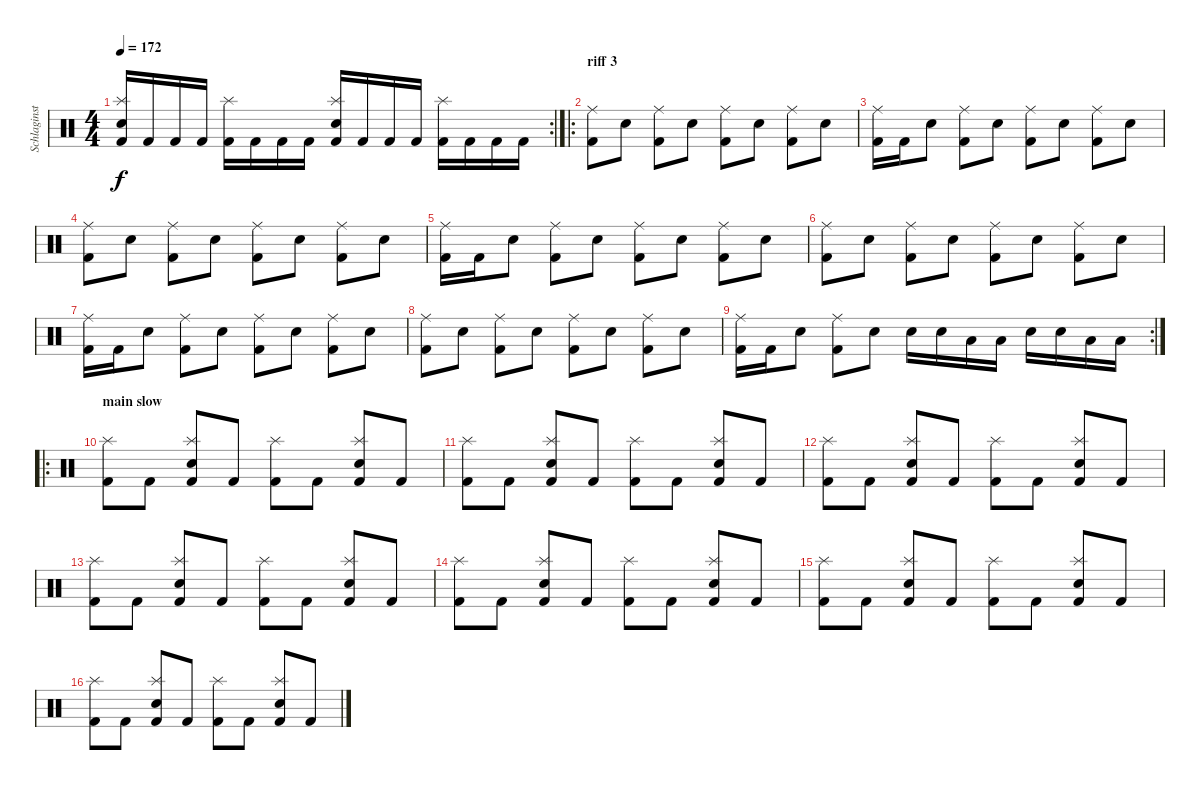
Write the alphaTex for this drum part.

\track ("Schlaginstrumente - Auswahl" "Schlaginst") {instrument percussion}
\staff {score}
\articulation defaults
\rc 2
\ts (4 4)
\tempo 172
\clef neutral
\ks c
("Electric Snare (hit)" "Splash (hit)" "Kick (hit) 2").16{dy f} "Kick (hit) 2".16 "Kick (hit) 2".16 "Kick (hit) 2".16 ("Splash (hit)" "Kick (hit) 2").16 "Kick (hit) 2".16 "Kick (hit) 2".16 "Kick (hit) 2".16 ("Electric Snare (hit)" "Splash (hit)" "Kick (hit) 2").16 "Kick (hit) 2".16 "Kick (hit) 2".16 "Kick (hit) 2".16 ("Splash (hit)" "Kick (hit) 2").16 "Kick (hit) 2".16 "Kick (hit) 2".16 "Kick (hit) 2".16 |
\ro
\section ("" "riff 3")
("Ride (middle)" "Kick (hit) 2").8 "Electric Snare (hit)".8 ("Ride (middle)" "Kick (hit) 2").8 "Electric Snare (hit)".8 ("Ride (middle)" "Kick (hit) 2").8 "Electric Snare (hit)".8 ("Ride (middle)" "Kick (hit) 2").8 "Electric Snare (hit)".8 |
("Ride (middle)" "Kick (hit) 2").16 "Kick (hit) 2".16 "Electric Snare (hit)".8 ("Ride (middle)" "Kick (hit) 2").8 "Electric Snare (hit)".8 ("Ride (middle)" "Kick (hit) 2").8 "Electric Snare (hit)".8 ("Ride (middle)" "Kick (hit) 2").8 "Electric Snare (hit)".8 |
("Ride (middle)" "Kick (hit) 2").8 "Electric Snare (hit)".8 ("Ride (middle)" "Kick (hit) 2").8 "Electric Snare (hit)".8 ("Ride (middle)" "Kick (hit) 2").8 "Electric Snare (hit)".8 ("Ride (middle)" "Kick (hit) 2").8 "Electric Snare (hit)".8 |
("Ride (middle)" "Kick (hit) 2").16 "Kick (hit) 2".16 "Electric Snare (hit)".8 ("Ride (middle)" "Kick (hit) 2").8 "Electric Snare (hit)".8 ("Ride (middle)" "Kick (hit) 2").8 "Electric Snare (hit)".8 ("Ride (middle)" "Kick (hit) 2").8 "Electric Snare (hit)".8 |
("Ride (middle)" "Kick (hit) 2").8 "Electric Snare (hit)".8 ("Ride (middle)" "Kick (hit) 2").8 "Electric Snare (hit)".8 ("Ride (middle)" "Kick (hit) 2").8 "Electric Snare (hit)".8 ("Ride (middle)" "Kick (hit) 2").8 "Electric Snare (hit)".8 |
("Ride (middle)" "Kick (hit) 2").16 "Kick (hit) 2".16 "Electric Snare (hit)".8 ("Ride (middle)" "Kick (hit) 2").8 "Electric Snare (hit)".8 ("Ride (middle)" "Kick (hit) 2").8 "Electric Snare (hit)".8 ("Ride (middle)" "Kick (hit) 2").8 "Electric Snare (hit)".8 |
("Ride (middle)" "Kick (hit) 2").8 "Electric Snare (hit)".8 ("Ride (middle)" "Kick (hit) 2").8 "Electric Snare (hit)".8 ("Ride (middle)" "Kick (hit) 2").8 "Electric Snare (hit)".8 ("Ride (middle)" "Kick (hit) 2").8 "Electric Snare (hit)".8 |
\rc 2
("Ride (middle)" "Kick (hit) 2").16 "Kick (hit) 2".16 "Electric Snare (hit)".8 ("Ride (middle)" "Kick (hit) 2").8 "Electric Snare (hit)".8 "Electric Snare (hit)".16 "Electric Snare (hit)".16 "Low Tom (hit)".16 "Low Tom (hit)".16 "Electric Snare (hit)".16 "Electric Snare (hit)".16 "Low Tom (hit)".16 "Low Tom (hit)".16 |
\ro
\section ("" "main slow")
("Splash (hit)" "Kick (hit) 2").8 "Kick (hit) 2".8 ("Electric Snare (hit)" "Splash (hit)" "Kick (hit) 2").8 "Kick (hit) 2".8 ("Splash (hit)" "Kick (hit) 2").8 "Kick (hit) 2".8 ("Electric Snare (hit)" "Splash (hit)" "Kick (hit) 2").8 "Kick (hit) 2".8 |
("Splash (hit)" "Kick (hit) 2").8 "Kick (hit) 2".8 ("Electric Snare (hit)" "Splash (hit)" "Kick (hit) 2").8 "Kick (hit) 2".8 ("Splash (hit)" "Kick (hit) 2").8 "Kick (hit) 2".8 ("Electric Snare (hit)" "Splash (hit)" "Kick (hit) 2").8 "Kick (hit) 2".8 |
("Splash (hit)" "Kick (hit) 2").8 "Kick (hit) 2".8 ("Electric Snare (hit)" "Splash (hit)" "Kick (hit) 2").8 "Kick (hit) 2".8 ("Splash (hit)" "Kick (hit) 2").8 "Kick (hit) 2".8 ("Electric Snare (hit)" "Splash (hit)" "Kick (hit) 2").8 "Kick (hit) 2".8 |
("Splash (hit)" "Kick (hit) 2").8 "Kick (hit) 2".8 ("Electric Snare (hit)" "Splash (hit)" "Kick (hit) 2").8 "Kick (hit) 2".8 ("Splash (hit)" "Kick (hit) 2").8 "Kick (hit) 2".8 ("Electric Snare (hit)" "Splash (hit)" "Kick (hit) 2").8 "Kick (hit) 2".8 |
("Splash (hit)" "Kick (hit) 2").8 "Kick (hit) 2".8 ("Electric Snare (hit)" "Splash (hit)" "Kick (hit) 2").8 "Kick (hit) 2".8 ("Splash (hit)" "Kick (hit) 2").8 "Kick (hit) 2".8 ("Electric Snare (hit)" "Splash (hit)" "Kick (hit) 2").8 "Kick (hit) 2".8 |
("Splash (hit)" "Kick (hit) 2").8 "Kick (hit) 2".8 ("Electric Snare (hit)" "Splash (hit)" "Kick (hit) 2").8 "Kick (hit) 2".8 ("Splash (hit)" "Kick (hit) 2").8 "Kick (hit) 2".8 ("Electric Snare (hit)" "Splash (hit)" "Kick (hit) 2").8 "Kick (hit) 2".8 |
("Splash (hit)" "Kick (hit) 2").8 "Kick (hit) 2".8 ("Electric Snare (hit)" "Splash (hit)" "Kick (hit) 2").8 "Kick (hit) 2".8 ("Splash (hit)" "Kick (hit) 2").8 "Kick (hit) 2".8 ("Electric Snare (hit)" "Splash (hit)" "Kick (hit) 2").8 "Kick (hit) 2".8
